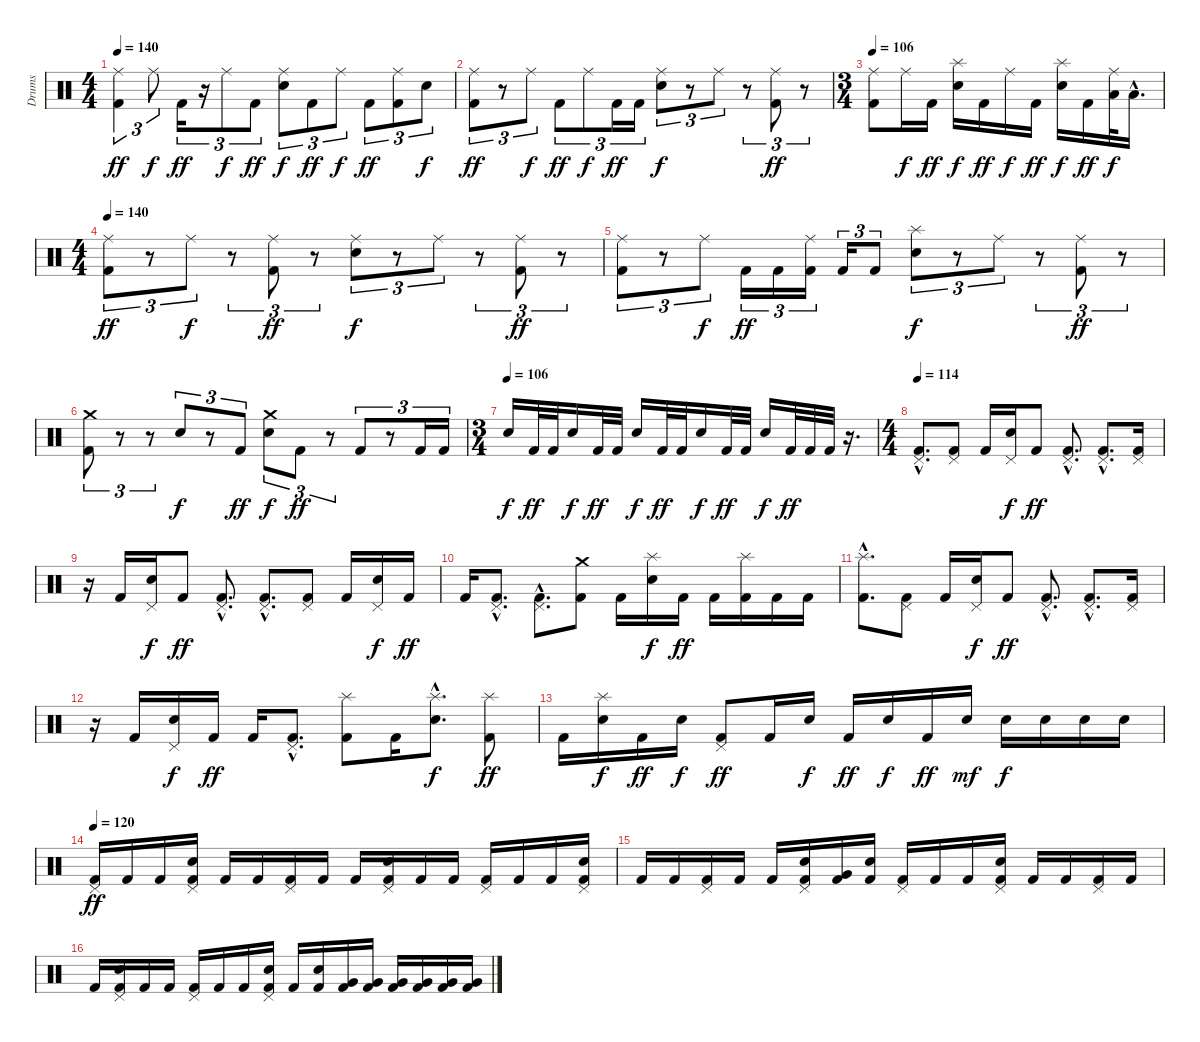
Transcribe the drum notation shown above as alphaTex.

\track ("Drums" "Drums") {instrument percussion}
\staff {score}
\articulation defaults
\ts (4 4)
\tempo 140
\clef neutral
\ks c
("Ride (middle)" "Kick (hit) 2").4{tu (3 2) dy ff} "Ride (middle)".8{tu (3 2) dy f} "Kick (hit) 2".16{tu (3 2) dy ff} r.16{tu (3 2)} "Ride (middle)".8{tu (3 2) dy f} "Kick (hit) 2".8{tu (3 2) dy ff} ("Ride (middle)" "Electric Snare (hit)").8{tu (3 2) dy f} "Kick (hit) 2".8{tu (3 2) dy ff} "Ride (middle)".8{tu (3 2) dy f} "Kick (hit) 2".8{tu (3 2) dy ff} ("Ride (middle)" "Kick (hit) 2").8{tu (3 2)} "Electric Snare (hit)".8{tu (3 2) dy f} |
("Ride (middle)" "Kick (hit) 2").8{tu (3 2) dy ff} r.8{tu (3 2)} "Ride (middle)".8{tu (3 2) dy f} "Kick (hit) 2".8{tu (3 2) dy ff} "Ride (middle)".8{tu (3 2) dy f} "Kick (hit) 2".16{tu (3 2) dy ff} "Kick (hit) 2".16{tu (3 2)} ("Ride (middle)" "Electric Snare (hit)").8{tu (3 2) dy f} r.8{tu (3 2)} "Ride (middle)".8{tu (3 2)} r.8{tu (3 2)} ("Ride (middle)" "Kick (hit) 2").8{tu (3 2) dy ff} r.8{tu (3 2)} |
\ts (3 4)
\tempo 106
("Ride (middle)" "Kick (hit) 2").8 "Ride (middle)".16{dy f} "Kick (hit) 2".16{dy ff} ("Splash (hit)" "Electric Snare (hit)").16{dy f} "Kick (hit) 2".16{dy ff} "Ride (middle)".16{dy f} "Kick (hit) 2".16{dy ff} ("Splash (hit)" "Electric Snare (hit)").16{dy f} "Kick (hit) 2".16{dy ff} ("Ride (middle)" "Low Tom (hit)").32{dy f} "Low Tom (hit)"{hac}.16{d} |
\ts (4 4)
\tempo 140
("Ride (middle)" "Kick (hit) 2").8{tu (3 2) dy ff} r.8{tu (3 2)} "Ride (middle)".8{tu (3 2) dy f} r.8{tu (3 2)} ("Ride (middle)" "Kick (hit) 2").8{tu (3 2) dy ff} r.8{tu (3 2)} ("Ride (middle)" "Electric Snare (hit)").8{tu (3 2) dy f} r.8{tu (3 2)} "Ride (middle)".8{tu (3 2)} r.8{tu (3 2)} ("Ride (middle)" "Kick (hit) 2").8{tu (3 2) dy ff} r.8{tu (3 2)} |
("Ride (middle)" "Kick (hit) 2").8{tu (3 2)} r.8{tu (3 2)} "Ride (middle)".8{tu (3 2) dy f} "Kick (hit) 2".16{tu (3 2) dy ff} "Kick (hit) 2".16{tu (3 2)} ("Ride (middle)" "Kick (hit) 2").16{tu (3 2)} "Kick (hit) 2".16{tu (3 2)} "Kick (hit) 2".8{tu (3 2)} ("Splash (hit)" "Electric Snare (hit)").8{tu (3 2) dy f} r.8{tu (3 2)} "Ride (middle)".8{tu (3 2)} r.8{tu (3 2)} ("Ride (middle)" "Kick (hit) 2").8{tu (3 2) dy ff} r.8{tu (3 2)} |
("Crash medium (hit)" "Kick (hit) 2").8{tu (3 2)} r.8{tu (3 2)} r.8{tu (3 2)} "Electric Snare (hit)".8{tu (3 2) dy f} r.8{tu (3 2)} "Kick (hit) 2".8{tu (3 2) dy ff} ("Crash medium (hit)" "Electric Snare (hit)").8{tu (3 2) dy f} "Kick (hit) 2".8{tu (3 2) dy ff} r.8{tu (3 2)} "Kick (hit) 2".8{tu (3 2)} r.8{tu (3 2)} "Kick (hit) 2".16{tu (3 2)} "Kick (hit) 2".16{tu (3 2)} |
\ts (3 4)
\tempo (106)
"Electric Snare (hit)".16{dy f} "Kick (hit) 2".32{dy ff} "Kick (hit) 2".32 "Electric Snare (hit)".16{dy f} "Kick (hit) 2".32{dy ff} "Kick (hit) 2".32 "Electric Snare (hit)".16{dy f} "Kick (hit) 2".32{dy ff} "Kick (hit) 2".32 "Electric Snare (hit)".16{dy f} "Kick (hit) 2".32{dy ff} "Kick (hit) 2".32 "Electric Snare (hit)".16{dy f} "Kick (hit) 2".32{dy ff} "Kick (hit) 2".32 "Kick (hit) 2".32 r.16{d} |
\ts (4 4)
\tempo 114
("Pedal Hi-Hat (hit)"{hac} "Kick (hit) 2"{hac}).8{d} ("Pedal Hi-Hat (hit)" "Kick (hit) 2").8 "Kick (hit) 2".16 ("Pedal Hi-Hat (hit)" "Electric Snare (hit)").16{dy f} "Kick (hit) 2".8{dy ff} ("Pedal Hi-Hat (hit)"{hac} "Kick (hit) 2"{hac}).8{d} ("Pedal Hi-Hat (hit)"{hac} "Kick (hit) 2"{hac}).8{d} ("Pedal Hi-Hat (hit)" "Kick (hit) 2").16 |
r.16 "Kick (hit) 2".16 ("Pedal Hi-Hat (hit)" "Electric Snare (hit)").16{dy f} "Kick (hit) 2".8{dy ff} ("Pedal Hi-Hat (hit)"{hac} "Kick (hit) 2"{hac}).8{d} ("Pedal Hi-Hat (hit)"{hac} "Kick (hit) 2"{hac}).8{d} ("Pedal Hi-Hat (hit)" "Kick (hit) 2").8 "Kick (hit) 2".16 ("Pedal Hi-Hat (hit)" "Electric Snare (hit)").16{dy f} "Kick (hit) 2".16{dy ff} |
"Kick (hit) 2".16 ("Pedal Hi-Hat (hit)"{hac} "Kick (hit) 2"{hac}).8{d} ("Pedal Hi-Hat (hit)"{hac} "Kick (hit) 2"{hac}).8{d} ("Crash medium (hit)" "Kick (hit) 2").8 "Kick (hit) 2".16 ("Splash (hit)" "Electric Snare (hit)").16{dy f} "Kick (hit) 2".16{dy ff} "Kick (hit) 2".16 ("Splash (hit)" "Kick (hit) 2").16 "Kick (hit) 2".16 "Kick (hit) 2".16 |
("Splash (hit)"{hac} "Kick (hit) 2"{hac}).8{d} ("Pedal Hi-Hat (hit)" "Kick (hit) 2").8 "Kick (hit) 2".16 ("Pedal Hi-Hat (hit)" "Electric Snare (hit)").16{dy f} "Kick (hit) 2".8{dy ff} ("Pedal Hi-Hat (hit)"{hac} "Kick (hit) 2"{hac}).8{d} ("Pedal Hi-Hat (hit)"{hac} "Kick (hit) 2"{hac}).8{d} ("Pedal Hi-Hat (hit)" "Kick (hit) 2").16 |
r.16 "Kick (hit) 2".16 ("Pedal Hi-Hat (hit)" "Electric Snare (hit)").16{dy f} "Kick (hit) 2".16{dy ff} "Kick (hit) 2".16 ("Pedal Hi-Hat (hit)"{hac} "Kick (hit) 2"{hac}).8{d} ("Splash (hit)" "Kick (hit) 2").8 "Kick (hit) 2".16 ("Splash (hit)"{hac} "Electric Snare (hit)"{hac}).8{d dy f} ("Splash (hit)" "Kick (hit) 2").8{dy ff} |
"Kick (hit) 2".16 ("Splash (hit)" "Electric Snare (hit)").16{dy f} "Kick (hit) 2".16{dy ff} "Electric Snare (hit)".16{dy f} ("Pedal Hi-Hat (hit)" "Kick (hit) 2").8{dy ff} "Kick (hit) 2".16 "Electric Snare (hit)".16{dy f} "Kick (hit) 2".16{dy ff} "Electric Snare (hit)".16{dy f} "Kick (hit) 2".16{dy ff} "Electric Snare (hit)".16{dy mf} "Electric Snare (hit)".16{dy f} "Electric Snare (hit)".16 "Electric Snare (hit)".16 "Electric Snare (hit)".16 |
\tempo 120
("Pedal Hi-Hat (hit)" "Kick (hit) 2").16{dy ff} "Kick (hit) 2".16 "Kick (hit) 2".16 ("Pedal Hi-Hat (hit)" "Electric Snare (hit)" "Kick (hit) 2").16 "Kick (hit) 2".16 "Kick (hit) 2".16 ("Pedal Hi-Hat (hit)" "Kick (hit) 2").16 "Kick (hit) 2".16 "Kick (hit) 2".16 ("Pedal Hi-Hat (hit)" "Electric Snare (hit)" "Kick (hit) 2").16 "Kick (hit) 2".16 "Kick (hit) 2".16 ("Pedal Hi-Hat (hit)" "Kick (hit) 2").16 "Kick (hit) 2".16 "Kick (hit) 2".16 ("Pedal Hi-Hat (hit)" "Electric Snare (hit)" "Kick (hit) 2").16 |
"Kick (hit) 2".16 "Kick (hit) 2".16 ("Pedal Hi-Hat (hit)" "Kick (hit) 2").16 "Kick (hit) 2".16 "Kick (hit) 2".16 ("Pedal Hi-Hat (hit)" "Electric Snare (hit)" "Kick (hit) 2").16 ("Very Low Tom (hit)" "Kick (hit) 2").16 ("Electric Snare (hit)" "Kick (hit) 2").16 ("Pedal Hi-Hat (hit)" "Kick (hit) 2").16 "Kick (hit) 2".16 "Kick (hit) 2".16 ("Pedal Hi-Hat (hit)" "Electric Snare (hit)" "Kick (hit) 2").16 "Kick (hit) 2".16 "Kick (hit) 2".16 ("Pedal Hi-Hat (hit)" "Kick (hit) 2").16 "Kick (hit) 2".16 |
"Kick (hit) 2".16 ("Pedal Hi-Hat (hit)" "Electric Snare (hit)" "Kick (hit) 2").16 "Kick (hit) 2".16 "Kick (hit) 2".16 ("Pedal Hi-Hat (hit)" "Kick (hit) 2").16 "Kick (hit) 2".16 "Kick (hit) 2".16 ("Pedal Hi-Hat (hit)" "Electric Snare (hit)" "Kick (hit) 2").16 "Kick (hit) 2".16 ("Electric Snare (hit)" "Kick (hit) 2").16 ("Very Low Tom (hit)" "Kick (hit) 2").16 ("Very Low Tom (hit)" "Kick (hit) 2").16 ("Very Low Tom (hit)" "Kick (hit) 2").16 ("Very Low Tom (hit)" "Kick (hit) 2").16 ("Very Low Tom (hit)" "Kick (hit) 2").16 ("Very Low Tom (hit)" "Kick (hit) 2").16
